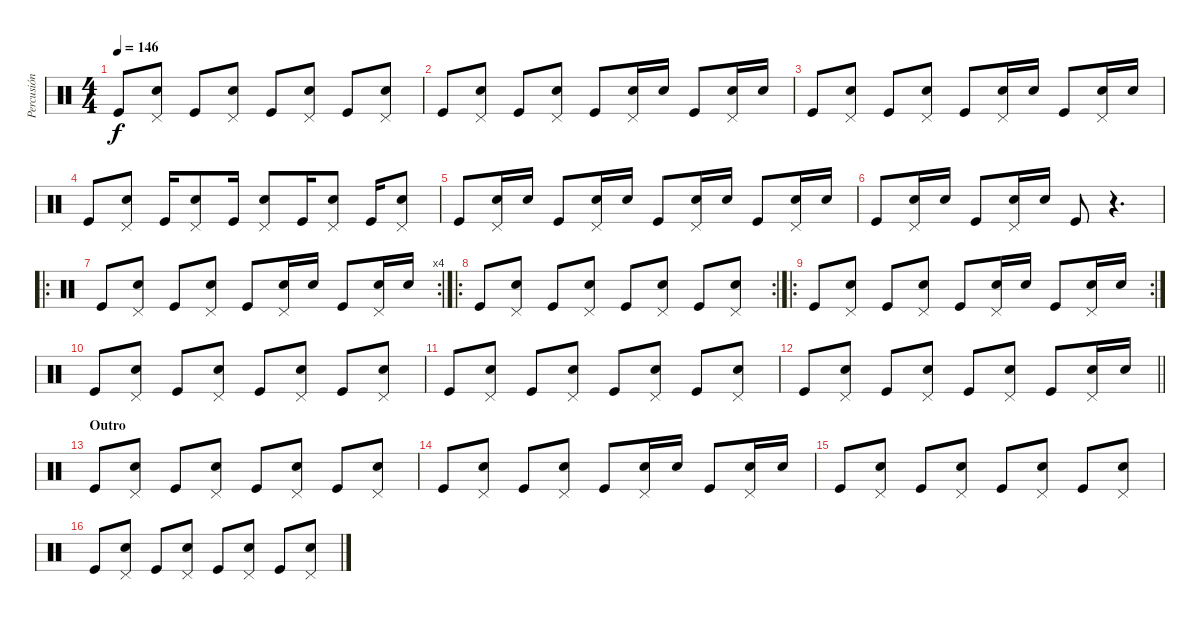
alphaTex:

\track ("Percusión" "Percusión") {instrument percussion}
\staff {score}
\articulation defaults
\ts (4 4)
\tempo 146
\clef neutral
\ks c "Kick (hit)".8{dy f}
("Pedal Hi-Hat (hit)" "Snare (hit) 2").8 "Kick (hit)".8 ("Pedal Hi-Hat (hit)" "Snare (hit) 2").8 "Kick (hit)".8 ("Pedal Hi-Hat (hit)" "Snare (hit) 2").8 "Kick (hit)".8 ("Pedal Hi-Hat (hit)" "Snare (hit) 2").8 |
"Kick (hit)".8 ("Pedal Hi-Hat (hit)" "Snare (hit) 2").8 "Kick (hit)".8 ("Pedal Hi-Hat (hit)" "Snare (hit) 2").8 "Kick (hit)".8 ("Pedal Hi-Hat (hit)" "Snare (hit) 2").16 "Snare (hit) 2".16 "Kick (hit)".8 ("Pedal Hi-Hat (hit)" "Snare (hit) 2").16 "Snare (hit) 2".16 |
"Kick (hit)".8 ("Pedal Hi-Hat (hit)" "Snare (hit) 2").8 "Kick (hit)".8 ("Pedal Hi-Hat (hit)" "Snare (hit) 2").8 "Kick (hit)".8 ("Pedal Hi-Hat (hit)" "Snare (hit) 2").16 "Snare (hit) 2".16 "Kick (hit)".8 ("Pedal Hi-Hat (hit)" "Snare (hit) 2").16 "Snare (hit) 2".16 |
"Kick (hit)".8 ("Pedal Hi-Hat (hit)" "Snare (hit) 2").8 "Kick (hit)".16 ("Pedal Hi-Hat (hit)" "Snare (hit) 2").8 "Kick (hit)".16 ("Pedal Hi-Hat (hit)" "Snare (hit) 2").8 "Kick (hit)".16 ("Pedal Hi-Hat (hit)" "Snare (hit) 2").8 "Kick (hit)".16 ("Pedal Hi-Hat (hit)" "Snare (hit) 2").8 |
"Kick (hit)".8 ("Pedal Hi-Hat (hit)" "Snare (hit) 2").16 "Snare (hit) 2".16 "Kick (hit)".8 ("Pedal Hi-Hat (hit)" "Snare (hit) 2").16 "Snare (hit) 2".16 "Kick (hit)".8 ("Pedal Hi-Hat (hit)" "Snare (hit) 2").16 "Snare (hit) 2".16 "Kick (hit)".8 ("Pedal Hi-Hat (hit)" "Snare (hit) 2").16 "Snare (hit) 2".16 |
"Kick (hit)".8 ("Pedal Hi-Hat (hit)" "Snare (hit) 2").16 "Snare (hit) 2".16 "Kick (hit)".8 ("Pedal Hi-Hat (hit)" "Snare (hit) 2").16 "Snare (hit) 2".16 "Kick (hit)".8 r.4{d} |
\ro
\rc 4 "Kick (hit)".8
("Pedal Hi-Hat (hit)" "Snare (hit) 2").8 "Kick (hit)".8 ("Pedal Hi-Hat (hit)" "Snare (hit) 2").8 "Kick (hit)".8 ("Pedal Hi-Hat (hit)" "Snare (hit) 2").16 "Snare (hit) 2".16 "Kick (hit)".8 ("Pedal Hi-Hat (hit)" "Snare (hit) 2").16 "Snare (hit) 2".16 |
\ro
\rc 2 "Kick (hit)".8
("Pedal Hi-Hat (hit)" "Snare (hit) 2").8 "Kick (hit)".8 ("Pedal Hi-Hat (hit)" "Snare (hit) 2").8 "Kick (hit)".8 ("Pedal Hi-Hat (hit)" "Snare (hit) 2").8 "Kick (hit)".8 ("Pedal Hi-Hat (hit)" "Snare (hit) 2").8 |
\ro
\rc 2 "Kick (hit)".8
("Pedal Hi-Hat (hit)" "Snare (hit) 2").8 "Kick (hit)".8 ("Pedal Hi-Hat (hit)" "Snare (hit) 2").8 "Kick (hit)".8 ("Pedal Hi-Hat (hit)" "Snare (hit) 2").16 "Snare (hit) 2".16 "Kick (hit)".8 ("Pedal Hi-Hat (hit)" "Snare (hit) 2").16 "Snare (hit) 2".16 |
"Kick (hit)".8 ("Pedal Hi-Hat (hit)" "Snare (hit) 2").8 "Kick (hit)".8 ("Pedal Hi-Hat (hit)" "Snare (hit) 2").8 "Kick (hit)".8 ("Pedal Hi-Hat (hit)" "Snare (hit) 2").8 "Kick (hit)".8 ("Pedal Hi-Hat (hit)" "Snare (hit) 2").8 |
"Kick (hit)".8 ("Pedal Hi-Hat (hit)" "Snare (hit) 2").8 "Kick (hit)".8 ("Pedal Hi-Hat (hit)" "Snare (hit) 2").8 "Kick (hit)".8 ("Pedal Hi-Hat (hit)" "Snare (hit) 2").8 "Kick (hit)".8 ("Pedal Hi-Hat (hit)" "Snare (hit) 2").8 |
\barLineRight lightlight "Kick (hit)".8
("Pedal Hi-Hat (hit)" "Snare (hit) 2").8 "Kick (hit)".8 ("Pedal Hi-Hat (hit)" "Snare (hit) 2").8 "Kick (hit)".8 ("Pedal Hi-Hat (hit)" "Snare (hit) 2").8 "Kick (hit)".8 ("Pedal Hi-Hat (hit)" "Snare (hit) 2").16 "Snare (hit) 2".16 |
\section ("" "Outro")
"Kick (hit)".8 ("Pedal Hi-Hat (hit)" "Snare (hit) 2").8 "Kick (hit)".8 ("Pedal Hi-Hat (hit)" "Snare (hit) 2").8 "Kick (hit)".8 ("Pedal Hi-Hat (hit)" "Snare (hit) 2").8 "Kick (hit)".8 ("Pedal Hi-Hat (hit)" "Snare (hit) 2").8 |
"Kick (hit)".8 ("Pedal Hi-Hat (hit)" "Snare (hit) 2").8 "Kick (hit)".8 ("Pedal Hi-Hat (hit)" "Snare (hit) 2").8 "Kick (hit)".8 ("Pedal Hi-Hat (hit)" "Snare (hit) 2").16 "Snare (hit) 2".16 "Kick (hit)".8 ("Pedal Hi-Hat (hit)" "Snare (hit) 2").16 "Snare (hit) 2".16 |
"Kick (hit)".8 ("Pedal Hi-Hat (hit)" "Snare (hit) 2").8 "Kick (hit)".8 ("Pedal Hi-Hat (hit)" "Snare (hit) 2").8 "Kick (hit)".8 ("Pedal Hi-Hat (hit)" "Snare (hit) 2").8 "Kick (hit)".8 ("Pedal Hi-Hat (hit)" "Snare (hit) 2").8 |
"Kick (hit)".8 ("Pedal Hi-Hat (hit)" "Snare (hit) 2").8 "Kick (hit)".8 ("Pedal Hi-Hat (hit)" "Snare (hit) 2").8 "Kick (hit)".8 ("Pedal Hi-Hat (hit)" "Snare (hit) 2").8 "Kick (hit)".8 ("Pedal Hi-Hat (hit)" "Snare (hit) 2").8
